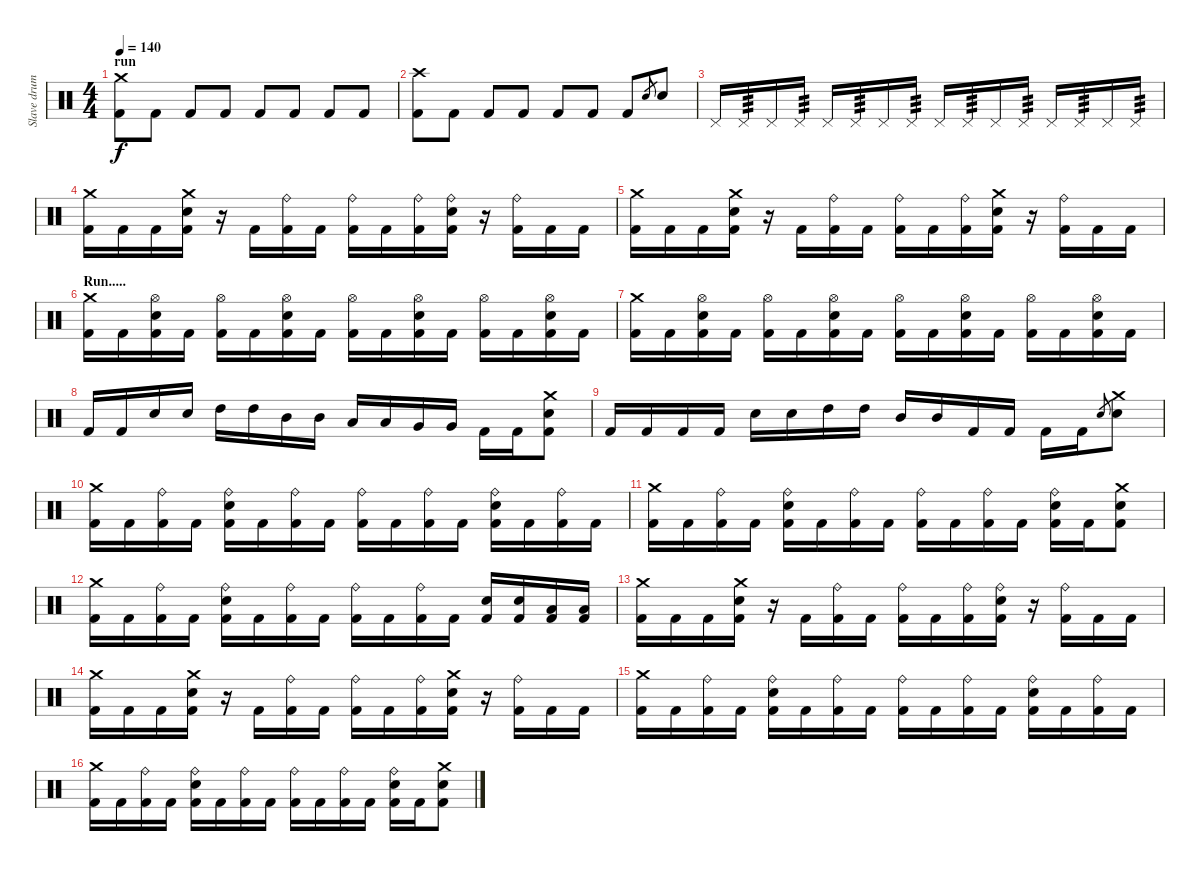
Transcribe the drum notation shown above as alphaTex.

\track ("Slave drum" "Slave drum") {instrument percussion}
\staff {score}
\articulation defaults
\ts (4 4)
\section ("" "run")
\tempo 140
\clef neutral
\ks c
("Crash medium (hit)" "Kick (hit) 2").8{dy f} "Kick (hit) 2".8 "Kick (hit) 2".8 "Kick (hit) 2".8 "Kick (hit) 2".8 "Kick (hit) 2".8 "Kick (hit) 2".8 "Kick (hit) 2".8 |
("Crash high (hit)" "Kick (hit) 2").8 "Kick (hit) 2".8 "Kick (hit) 2".8 "Kick (hit) 2".8 "Kick (hit) 2".8 "Kick (hit) 2".8 "Kick (hit) 2".8 "Electric Snare (hit)".8{gr} "Electric Snare (hit)".8 |
"Pedal Hi-Hat (hit)".16 "Pedal Hi-Hat (hit)".16{tp 3} "Pedal Hi-Hat (hit)".16 "Pedal Hi-Hat (hit)".16{tp 3} "Pedal Hi-Hat (hit)".16 "Pedal Hi-Hat (hit)".16{tp 3} "Pedal Hi-Hat (hit)".16 "Pedal Hi-Hat (hit)".16{tp 3} "Pedal Hi-Hat (hit)".16 "Pedal Hi-Hat (hit)".16{tp 3} "Pedal Hi-Hat (hit)".16 "Pedal Hi-Hat (hit)".16{tp 3} "Pedal Hi-Hat (hit)".16 "Pedal Hi-Hat (hit)".16{tp 3} "Pedal Hi-Hat (hit)".16 "Pedal Hi-Hat (hit)".16{tp 3} |
("Crash medium (hit)" "Kick (hit) 2").16 "Kick (hit) 2".16 "Kick (hit) 2".16 ("Crash medium (hit)" "Electric Snare (hit)" "Kick (hit) 2").16 r.16 "Kick (hit) 2".16 ("Ride (bell)" "Kick (hit) 2").16 "Kick (hit) 2".16 ("Ride (bell)" "Kick (hit) 2").16 "Kick (hit) 2".16 ("Ride (bell)" "Kick (hit) 2").16 ("Ride (bell)" "Electric Snare (hit)" "Kick (hit) 2").16 r.16 ("Ride (bell)" "Kick (hit) 2").16 "Kick (hit) 2".16 "Kick (hit) 2".16 |
("Crash medium (hit)" "Kick (hit) 2").16 "Kick (hit) 2".16 "Kick (hit) 2".16 ("Crash medium (hit)" "Electric Snare (hit)" "Kick (hit) 2").16 r.16 "Kick (hit) 2".16 ("Ride (bell)" "Kick (hit) 2").16 "Kick (hit) 2".16 ("Ride (bell)" "Kick (hit) 2").16 "Kick (hit) 2".16 ("Ride (bell)" "Kick (hit) 2").16 ("Crash medium (hit)" "Electric Snare (hit)" "Kick (hit) 2").16 r.16 ("Ride (bell)" "Kick (hit) 2").16 "Kick (hit) 2".16 "Kick (hit) 2".16 |
\section ("" "Run.....")
("Crash medium (hit)" "Kick (hit) 2").16 "Kick (hit) 2".16 ("Hi-Hat (open)" "Electric Snare (hit)" "Kick (hit) 2").16 "Kick (hit) 2".16 ("Hi-Hat (open)" "Kick (hit) 2").16 "Kick (hit) 2".16 ("Hi-Hat (open)" "Electric Snare (hit)" "Kick (hit) 2").16 "Kick (hit) 2".16 ("Hi-Hat (open)" "Kick (hit) 2").16 "Kick (hit) 2".16 ("Hi-Hat (open)" "Electric Snare (hit)" "Kick (hit) 2").16 "Kick (hit) 2".16 ("Hi-Hat (open)" "Kick (hit) 2").16 "Kick (hit) 2".16 ("Hi-Hat (open)" "Electric Snare (hit)" "Kick (hit) 2").16 "Kick (hit) 2".16 |
("Crash medium (hit)" "Kick (hit) 2").16 "Kick (hit) 2".16 ("Hi-Hat (open)" "Electric Snare (hit)" "Kick (hit) 2").16 "Kick (hit) 2".16 ("Hi-Hat (open)" "Kick (hit) 2").16 "Kick (hit) 2".16 ("Hi-Hat (open)" "Electric Snare (hit)" "Kick (hit) 2").16 "Kick (hit) 2".16 ("Hi-Hat (open)" "Kick (hit) 2").16 "Kick (hit) 2".16 ("Hi-Hat (open)" "Electric Snare (hit)" "Kick (hit) 2").16 "Kick (hit) 2".16 ("Hi-Hat (open)" "Kick (hit) 2").16 "Kick (hit) 2".16 ("Hi-Hat (open)" "Electric Snare (hit)" "Kick (hit) 2").16 "Kick (hit) 2".16 |
"Kick (hit) 2".16 "Kick (hit) 2".16 "Electric Snare (hit)".16 "Electric Snare (hit)".16 "High Tom (hit)".16 "High Tom (hit)".16 "Mid Tom (hit)".16 "Mid Tom (hit)".16 "Low Tom (hit)".16 "Low Tom (hit)".16 "Very Low Tom (hit)".16 "Very Low Tom (hit)".16 "Kick (hit) 2".16 "Kick (hit) 2".16 ("Crash medium (hit)" "Electric Snare (hit)" "Kick (hit) 2").8 |
"Kick (hit) 2".16 "Kick (hit) 2".16 "Kick (hit) 2".16 "Kick (hit) 2".16 "Electric Snare (hit)".16 "Electric Snare (hit)".16 "High Tom (hit)".16 "High Tom (hit)".16 "Mid Tom (hit)".16 "Mid Tom (hit)".16 "Kick (hit) 2".16 "Kick (hit) 2".16 "Kick (hit) 2".16 "Kick (hit) 2".16 "Electric Snare (hit)".8{gr} ("Crash medium (hit)" "Electric Snare (hit)").8 |
("Crash medium (hit)" "Kick (hit) 2").16 "Kick (hit) 2".16 ("Ride (bell)" "Kick (hit) 2").16 "Kick (hit) 2".16 ("Ride (bell)" "Electric Snare (hit)" "Kick (hit) 2").16 "Kick (hit) 2".16 ("Ride (bell)" "Kick (hit) 2").16 "Kick (hit) 2".16 ("Ride (bell)" "Kick (hit) 2").16 "Kick (hit) 2".16 ("Ride (bell)" "Kick (hit) 2").16 "Kick (hit) 2".16 ("Ride (bell)" "Electric Snare (hit)" "Kick (hit) 2").16 "Kick (hit) 2".16 ("Ride (bell)" "Kick (hit) 2").16 "Kick (hit) 2".16 |
("Crash medium (hit)" "Kick (hit) 2").16 "Kick (hit) 2".16 ("Ride (bell)" "Kick (hit) 2").16 "Kick (hit) 2".16 ("Ride (bell)" "Electric Snare (hit)" "Kick (hit) 2").16 "Kick (hit) 2".16 ("Ride (bell)" "Kick (hit) 2").16 "Kick (hit) 2".16 ("Ride (bell)" "Kick (hit) 2").16 "Kick (hit) 2".16 ("Ride (bell)" "Kick (hit) 2").16 "Kick (hit) 2".16 ("Ride (bell)" "Electric Snare (hit)" "Kick (hit) 2").16 "Kick (hit) 2".16 ("Crash medium (hit)" "Electric Snare (hit)" "Kick (hit) 2").8 |
("Crash medium (hit)" "Kick (hit) 2").16 "Kick (hit) 2".16 ("Ride (bell)" "Kick (hit) 2").16 "Kick (hit) 2".16 ("Ride (bell)" "Electric Snare (hit)" "Kick (hit) 2").16 "Kick (hit) 2".16 ("Ride (bell)" "Kick (hit) 2").16 "Kick (hit) 2".16 ("Ride (bell)" "Kick (hit) 2").16 "Kick (hit) 2".16 ("Ride (bell)" "Kick (hit) 2").16 "Kick (hit) 2".16 ("Electric Snare (hit)" "Kick (hit) 2").16 ("Electric Snare (hit)" "Kick (hit) 2").16 ("Low Tom (hit)" "Kick (hit) 2").16 ("Low Tom (hit)" "Kick (hit) 2").16 |
("Crash medium (hit)" "Kick (hit) 2").16 "Kick (hit) 2".16 "Kick (hit) 2".16 ("Crash medium (hit)" "Electric Snare (hit)" "Kick (hit) 2").16 r.16 "Kick (hit) 2".16 ("Ride (bell)" "Kick (hit) 2").16 "Kick (hit) 2".16 ("Ride (bell)" "Kick (hit) 2").16 "Kick (hit) 2".16 ("Ride (bell)" "Kick (hit) 2").16 ("Ride (bell)" "Electric Snare (hit)" "Kick (hit) 2").16 r.16 ("Ride (bell)" "Kick (hit) 2").16 "Kick (hit) 2".16 "Kick (hit) 2".16 |
("Crash medium (hit)" "Kick (hit) 2").16 "Kick (hit) 2".16 "Kick (hit) 2".16 ("Crash medium (hit)" "Electric Snare (hit)" "Kick (hit) 2").16 r.16 "Kick (hit) 2".16 ("Ride (bell)" "Kick (hit) 2").16 "Kick (hit) 2".16 ("Ride (bell)" "Kick (hit) 2").16 "Kick (hit) 2".16 ("Ride (bell)" "Kick (hit) 2").16 ("Crash medium (hit)" "Electric Snare (hit)" "Kick (hit) 2").16 r.16 ("Ride (bell)" "Kick (hit) 2").16 "Kick (hit) 2".16 "Kick (hit) 2".16 |
("Crash medium (hit)" "Kick (hit) 2").16 "Kick (hit) 2".16 ("Ride (bell)" "Kick (hit) 2").16 "Kick (hit) 2".16 ("Ride (bell)" "Electric Snare (hit)" "Kick (hit) 2").16 "Kick (hit) 2".16 ("Ride (bell)" "Kick (hit) 2").16 "Kick (hit) 2".16 ("Ride (bell)" "Kick (hit) 2").16 "Kick (hit) 2".16 ("Ride (bell)" "Kick (hit) 2").16 "Kick (hit) 2".16 ("Ride (bell)" "Electric Snare (hit)" "Kick (hit) 2").16 "Kick (hit) 2".16 ("Ride (bell)" "Kick (hit) 2").16 "Kick (hit) 2".16 |
("Crash medium (hit)" "Kick (hit) 2").16 "Kick (hit) 2".16 ("Ride (bell)" "Kick (hit) 2").16 "Kick (hit) 2".16 ("Ride (bell)" "Electric Snare (hit)" "Kick (hit) 2").16 "Kick (hit) 2".16 ("Ride (bell)" "Kick (hit) 2").16 "Kick (hit) 2".16 ("Ride (bell)" "Kick (hit) 2").16 "Kick (hit) 2".16 ("Ride (bell)" "Kick (hit) 2").16 "Kick (hit) 2".16 ("Ride (bell)" "Electric Snare (hit)" "Kick (hit) 2").16 "Kick (hit) 2".16 ("Crash medium (hit)" "Electric Snare (hit)" "Kick (hit) 2").8
